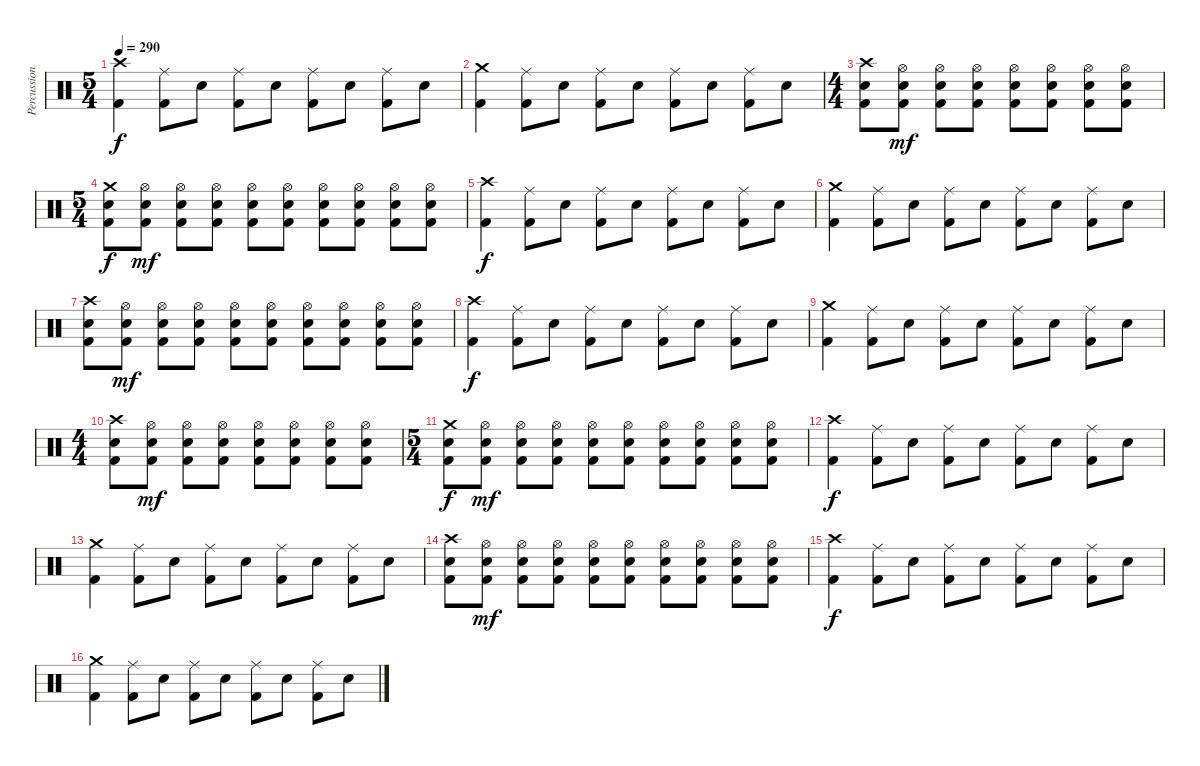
\track ("Percussion" "Percussion") {instrument percussion}
\staff {score}
\articulation defaults
\ts (5 4)
\tempo 290
\clef neutral
\ks c
("Crash high (hit)" "Kick (hit) 2").4{dy f} ("Ride (middle)" "Kick (hit) 2").8 "Electric Snare (hit)".8 ("Ride (middle)" "Kick (hit) 2").8 "Electric Snare (hit)".8 ("Ride (middle)" "Kick (hit) 2").8 "Electric Snare (hit)".8 ("Ride (middle)" "Kick (hit) 2").8 "Electric Snare (hit)".8 |
("Crash medium (hit)" "Kick (hit) 2").4 ("Ride (middle)" "Kick (hit) 2").8 "Electric Snare (hit)".8 ("Ride (middle)" "Kick (hit) 2").8 "Electric Snare (hit)".8 ("Ride (middle)" "Kick (hit) 2").8 "Electric Snare (hit)".8 ("Ride (middle)" "Kick (hit) 2").8 "Electric Snare (hit)".8 |
\ts (4 4)
("Crash high (hit)" "Electric Snare (hit)" "Kick (hit) 2").8 ("Hi-Hat (open)" "Electric Snare (hit)" "Kick (hit) 2").8{dy mf} ("Hi-Hat (open)" "Electric Snare (hit)" "Kick (hit) 2").8 ("Hi-Hat (open)" "Electric Snare (hit)" "Kick (hit) 2").8 ("Hi-Hat (open)" "Electric Snare (hit)" "Kick (hit) 2").8 ("Hi-Hat (open)" "Electric Snare (hit)" "Kick (hit) 2").8 ("Hi-Hat (open)" "Electric Snare (hit)" "Kick (hit) 2").8 ("Hi-Hat (open)" "Electric Snare (hit)" "Kick (hit) 2").8 |
\ts (5 4)
("Crash medium (hit)" "Electric Snare (hit)" "Kick (hit) 2").8{dy f} ("Hi-Hat (open)" "Electric Snare (hit)" "Kick (hit) 2").8{dy mf} ("Hi-Hat (open)" "Electric Snare (hit)" "Kick (hit) 2").8 ("Hi-Hat (open)" "Electric Snare (hit)" "Kick (hit) 2").8 ("Hi-Hat (open)" "Electric Snare (hit)" "Kick (hit) 2").8 ("Hi-Hat (open)" "Electric Snare (hit)" "Kick (hit) 2").8 ("Hi-Hat (open)" "Electric Snare (hit)" "Kick (hit) 2").8 ("Hi-Hat (open)" "Electric Snare (hit)" "Kick (hit) 2").8 ("Hi-Hat (open)" "Electric Snare (hit)" "Kick (hit) 2").8 ("Hi-Hat (open)" "Electric Snare (hit)" "Kick (hit) 2").8 |
("Crash high (hit)" "Kick (hit) 2").4{dy f} ("Ride (middle)" "Kick (hit) 2").8 "Electric Snare (hit)".8 ("Ride (middle)" "Kick (hit) 2").8 "Electric Snare (hit)".8 ("Ride (middle)" "Kick (hit) 2").8 "Electric Snare (hit)".8 ("Ride (middle)" "Kick (hit) 2").8 "Electric Snare (hit)".8 |
("Crash medium (hit)" "Kick (hit) 2").4 ("Ride (middle)" "Kick (hit) 2").8 "Electric Snare (hit)".8 ("Ride (middle)" "Kick (hit) 2").8 "Electric Snare (hit)".8 ("Ride (middle)" "Kick (hit) 2").8 "Electric Snare (hit)".8 ("Ride (middle)" "Kick (hit) 2").8 "Electric Snare (hit)".8 |
("Crash high (hit)" "Electric Snare (hit)" "Kick (hit) 2").8 ("Hi-Hat (open)" "Electric Snare (hit)" "Kick (hit) 2").8{dy mf} ("Hi-Hat (open)" "Electric Snare (hit)" "Kick (hit) 2").8 ("Hi-Hat (open)" "Electric Snare (hit)" "Kick (hit) 2").8 ("Hi-Hat (open)" "Electric Snare (hit)" "Kick (hit) 2").8 ("Hi-Hat (open)" "Electric Snare (hit)" "Kick (hit) 2").8 ("Hi-Hat (open)" "Electric Snare (hit)" "Kick (hit) 2").8 ("Hi-Hat (open)" "Electric Snare (hit)" "Kick (hit) 2").8 ("Hi-Hat (open)" "Electric Snare (hit)" "Kick (hit) 2").8 ("Hi-Hat (open)" "Electric Snare (hit)" "Kick (hit) 2").8 |
("Crash high (hit)" "Kick (hit) 2").4{dy f} ("Ride (middle)" "Kick (hit) 2").8 "Electric Snare (hit)".8 ("Ride (middle)" "Kick (hit) 2").8 "Electric Snare (hit)".8 ("Ride (middle)" "Kick (hit) 2").8 "Electric Snare (hit)".8 ("Ride (middle)" "Kick (hit) 2").8 "Electric Snare (hit)".8 |
("Crash medium (hit)" "Kick (hit) 2").4 ("Ride (middle)" "Kick (hit) 2").8 "Electric Snare (hit)".8 ("Ride (middle)" "Kick (hit) 2").8 "Electric Snare (hit)".8 ("Ride (middle)" "Kick (hit) 2").8 "Electric Snare (hit)".8 ("Ride (middle)" "Kick (hit) 2").8 "Electric Snare (hit)".8 |
\ts (4 4)
("Crash high (hit)" "Electric Snare (hit)" "Kick (hit) 2").8 ("Hi-Hat (open)" "Electric Snare (hit)" "Kick (hit) 2").8{dy mf} ("Hi-Hat (open)" "Electric Snare (hit)" "Kick (hit) 2").8 ("Hi-Hat (open)" "Electric Snare (hit)" "Kick (hit) 2").8 ("Hi-Hat (open)" "Electric Snare (hit)" "Kick (hit) 2").8 ("Hi-Hat (open)" "Electric Snare (hit)" "Kick (hit) 2").8 ("Hi-Hat (open)" "Electric Snare (hit)" "Kick (hit) 2").8 ("Hi-Hat (open)" "Electric Snare (hit)" "Kick (hit) 2").8 |
\ts (5 4)
("Crash medium (hit)" "Electric Snare (hit)" "Kick (hit) 2").8{dy f} ("Hi-Hat (open)" "Electric Snare (hit)" "Kick (hit) 2").8{dy mf} ("Hi-Hat (open)" "Electric Snare (hit)" "Kick (hit) 2").8 ("Hi-Hat (open)" "Electric Snare (hit)" "Kick (hit) 2").8 ("Hi-Hat (open)" "Electric Snare (hit)" "Kick (hit) 2").8 ("Hi-Hat (open)" "Electric Snare (hit)" "Kick (hit) 2").8 ("Hi-Hat (open)" "Electric Snare (hit)" "Kick (hit) 2").8 ("Hi-Hat (open)" "Electric Snare (hit)" "Kick (hit) 2").8 ("Hi-Hat (open)" "Electric Snare (hit)" "Kick (hit) 2").8 ("Hi-Hat (open)" "Electric Snare (hit)" "Kick (hit) 2").8 |
("Crash high (hit)" "Kick (hit) 2").4{dy f} ("Ride (middle)" "Kick (hit) 2").8 "Electric Snare (hit)".8 ("Ride (middle)" "Kick (hit) 2").8 "Electric Snare (hit)".8 ("Ride (middle)" "Kick (hit) 2").8 "Electric Snare (hit)".8 ("Ride (middle)" "Kick (hit) 2").8 "Electric Snare (hit)".8 |
("Crash medium (hit)" "Kick (hit) 2").4 ("Ride (middle)" "Kick (hit) 2").8 "Electric Snare (hit)".8 ("Ride (middle)" "Kick (hit) 2").8 "Electric Snare (hit)".8 ("Ride (middle)" "Kick (hit) 2").8 "Electric Snare (hit)".8 ("Ride (middle)" "Kick (hit) 2").8 "Electric Snare (hit)".8 |
("Crash high (hit)" "Electric Snare (hit)" "Kick (hit) 2").8 ("Hi-Hat (open)" "Electric Snare (hit)" "Kick (hit) 2").8{dy mf} ("Hi-Hat (open)" "Electric Snare (hit)" "Kick (hit) 2").8 ("Hi-Hat (open)" "Electric Snare (hit)" "Kick (hit) 2").8 ("Hi-Hat (open)" "Electric Snare (hit)" "Kick (hit) 2").8 ("Hi-Hat (open)" "Electric Snare (hit)" "Kick (hit) 2").8 ("Hi-Hat (open)" "Electric Snare (hit)" "Kick (hit) 2").8 ("Hi-Hat (open)" "Electric Snare (hit)" "Kick (hit) 2").8 ("Hi-Hat (open)" "Electric Snare (hit)" "Kick (hit) 2").8 ("Hi-Hat (open)" "Electric Snare (hit)" "Kick (hit) 2").8 |
("Crash high (hit)" "Kick (hit) 2").4{dy f} ("Ride (middle)" "Kick (hit) 2").8 "Electric Snare (hit)".8 ("Ride (middle)" "Kick (hit) 2").8 "Electric Snare (hit)".8 ("Ride (middle)" "Kick (hit) 2").8 "Electric Snare (hit)".8 ("Ride (middle)" "Kick (hit) 2").8 "Electric Snare (hit)".8 |
("Crash medium (hit)" "Kick (hit) 2").4 ("Ride (middle)" "Kick (hit) 2").8 "Electric Snare (hit)".8 ("Ride (middle)" "Kick (hit) 2").8 "Electric Snare (hit)".8 ("Ride (middle)" "Kick (hit) 2").8 "Electric Snare (hit)".8 ("Ride (middle)" "Kick (hit) 2").8 "Electric Snare (hit)".8
